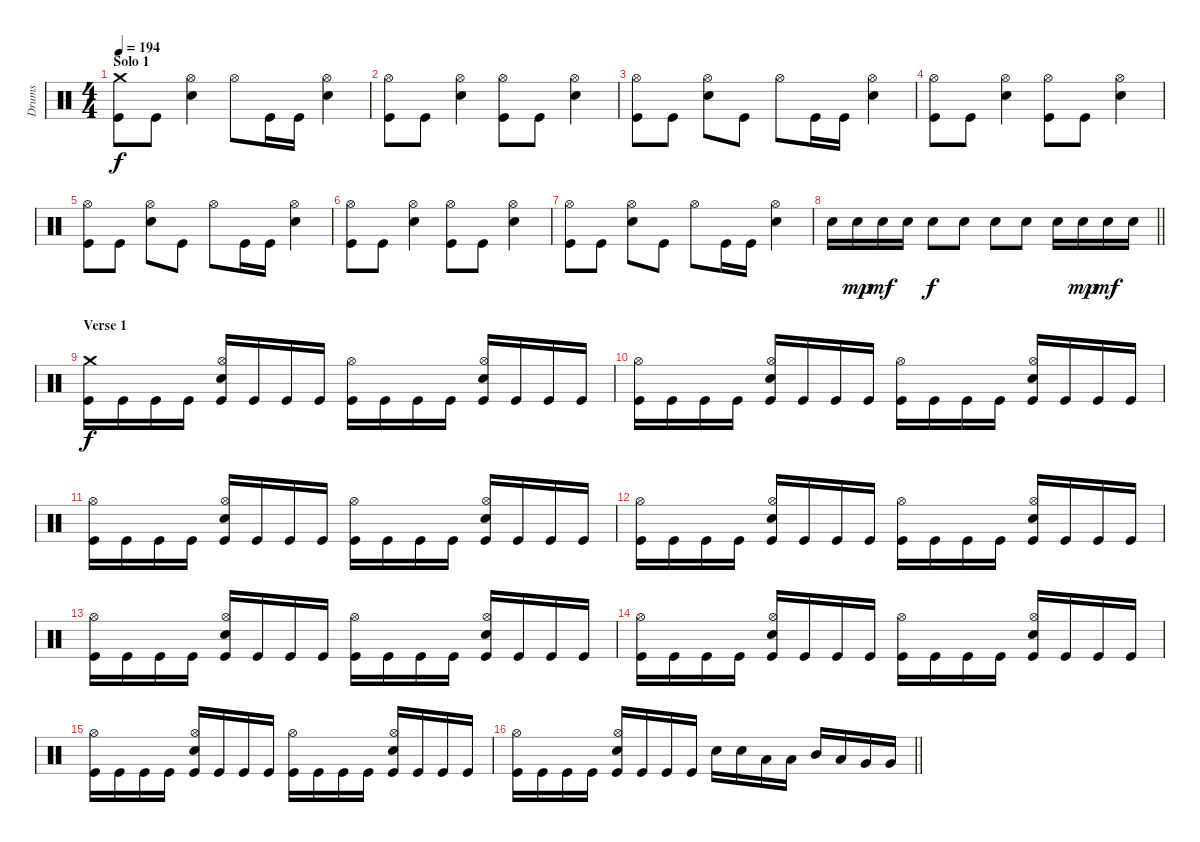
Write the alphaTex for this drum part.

\track ("Drums" "Drums") {instrument percussion}
\staff {score}
\articulation defaults
\ts (4 4)
\section ("" "Solo 1")
\tempo 194
\clef neutral
\ks c
("Crash medium (hit)" "Kick (hit)").8{dy f} "Kick (hit)".8 ("Hi-Hat (open)" "Snare (hit) 2").4 "Hi-Hat (open)".8 "Kick (hit)".16 "Kick (hit)".16 ("Hi-Hat (open)" "Snare (hit) 2").4 |
("Hi-Hat (open)" "Kick (hit)").8 "Kick (hit)".8 ("Hi-Hat (open)" "Snare (hit) 2").4 ("Hi-Hat (open)" "Kick (hit)").8 "Kick (hit)".8 ("Hi-Hat (open)" "Snare (hit) 2").4 |
("Hi-Hat (open)" "Kick (hit)").8 "Kick (hit)".8 ("Hi-Hat (open)" "Snare (hit) 2").8 "Kick (hit)".8 "Hi-Hat (open)".8 "Kick (hit)".16 "Kick (hit)".16 ("Hi-Hat (open)" "Snare (hit) 2").4 |
("Hi-Hat (open)" "Kick (hit)").8 "Kick (hit)".8 ("Hi-Hat (open)" "Snare (hit) 2").4 ("Hi-Hat (open)" "Kick (hit)").8 "Kick (hit)".8 ("Hi-Hat (open)" "Snare (hit) 2").4 |
("Hi-Hat (open)" "Kick (hit)").8 "Kick (hit)".8 ("Hi-Hat (open)" "Snare (hit) 2").8 "Kick (hit)".8 "Hi-Hat (open)".8 "Kick (hit)".16 "Kick (hit)".16 ("Hi-Hat (open)" "Snare (hit) 2").4 |
("Hi-Hat (open)" "Kick (hit)").8 "Kick (hit)".8 ("Hi-Hat (open)" "Snare (hit) 2").4 ("Hi-Hat (open)" "Kick (hit)").8 "Kick (hit)".8 ("Hi-Hat (open)" "Snare (hit) 2").4 |
("Hi-Hat (open)" "Kick (hit)").8 "Kick (hit)".8 ("Hi-Hat (open)" "Snare (hit) 2").8 "Kick (hit)".8 "Hi-Hat (open)".8 "Kick (hit)".16 "Kick (hit)".16 ("Hi-Hat (open)" "Snare (hit) 2").4 |
\barLineRight lightlight "Snare (hit) 2".16 "Snare (hit) 2".16{dy mp} "Snare (hit) 2".16{dy mf} "Snare (hit) 2".16 "Snare (hit) 2".8{dy f} "Snare (hit) 2".8 "Snare (hit) 2".8 "Snare (hit) 2".8 "Snare (hit) 2".16 "Snare (hit) 2".16{dy mp} "Snare (hit) 2".16{dy mf} "Snare (hit) 2".16
|
\section ("" "Verse 1")
("Crash medium (hit)" "Kick (hit)").16{dy f} "Kick (hit)".16 "Kick (hit)".16 "Kick (hit)".16 ("Hi-Hat (open)" "Snare (hit) 2" "Kick (hit)").16 "Kick (hit)".16 "Kick (hit)".16 "Kick (hit)".16 ("Hi-Hat (open)" "Kick (hit)").16 "Kick (hit)".16 "Kick (hit)".16 "Kick (hit)".16 ("Hi-Hat (open)" "Snare (hit) 2" "Kick (hit)").16 "Kick (hit)".16 "Kick (hit)".16 "Kick (hit)".16 |
("Hi-Hat (open)" "Kick (hit)").16 "Kick (hit)".16 "Kick (hit)".16 "Kick (hit)".16 ("Hi-Hat (open)" "Snare (hit) 2" "Kick (hit)").16 "Kick (hit)".16 "Kick (hit)".16 "Kick (hit)".16 ("Hi-Hat (open)" "Kick (hit)").16 "Kick (hit)".16 "Kick (hit)".16 "Kick (hit)".16 ("Hi-Hat (open)" "Snare (hit) 2" "Kick (hit)").16 "Kick (hit)".16 "Kick (hit)".16 "Kick (hit)".16 |
("Hi-Hat (open)" "Kick (hit)").16 "Kick (hit)".16 "Kick (hit)".16 "Kick (hit)".16 ("Hi-Hat (open)" "Snare (hit) 2" "Kick (hit)").16 "Kick (hit)".16 "Kick (hit)".16 "Kick (hit)".16 ("Hi-Hat (open)" "Kick (hit)").16 "Kick (hit)".16 "Kick (hit)".16 "Kick (hit)".16 ("Hi-Hat (open)" "Snare (hit) 2" "Kick (hit)").16 "Kick (hit)".16 "Kick (hit)".16 "Kick (hit)".16 |
("Hi-Hat (open)" "Kick (hit)").16 "Kick (hit)".16 "Kick (hit)".16 "Kick (hit)".16 ("Hi-Hat (open)" "Snare (hit) 2" "Kick (hit)").16 "Kick (hit)".16 "Kick (hit)".16 "Kick (hit)".16 ("Hi-Hat (open)" "Kick (hit)").16 "Kick (hit)".16 "Kick (hit)".16 "Kick (hit)".16 ("Hi-Hat (open)" "Snare (hit) 2" "Kick (hit)").16 "Kick (hit)".16 "Kick (hit)".16 "Kick (hit)".16 |
("Hi-Hat (open)" "Kick (hit)").16 "Kick (hit)".16 "Kick (hit)".16 "Kick (hit)".16 ("Hi-Hat (open)" "Snare (hit) 2" "Kick (hit)").16 "Kick (hit)".16 "Kick (hit)".16 "Kick (hit)".16 ("Hi-Hat (open)" "Kick (hit)").16 "Kick (hit)".16 "Kick (hit)".16 "Kick (hit)".16 ("Hi-Hat (open)" "Snare (hit) 2" "Kick (hit)").16 "Kick (hit)".16 "Kick (hit)".16 "Kick (hit)".16 |
("Hi-Hat (open)" "Kick (hit)").16 "Kick (hit)".16 "Kick (hit)".16 "Kick (hit)".16 ("Hi-Hat (open)" "Snare (hit) 2" "Kick (hit)").16 "Kick (hit)".16 "Kick (hit)".16 "Kick (hit)".16 ("Hi-Hat (open)" "Kick (hit)").16 "Kick (hit)".16 "Kick (hit)".16 "Kick (hit)".16 ("Hi-Hat (open)" "Snare (hit) 2" "Kick (hit)").16 "Kick (hit)".16 "Kick (hit)".16 "Kick (hit)".16 |
("Hi-Hat (open)" "Kick (hit)").16 "Kick (hit)".16 "Kick (hit)".16 "Kick (hit)".16 ("Hi-Hat (open)" "Snare (hit) 2" "Kick (hit)").16 "Kick (hit)".16 "Kick (hit)".16 "Kick (hit)".16 ("Hi-Hat (open)" "Kick (hit)").16 "Kick (hit)".16 "Kick (hit)".16 "Kick (hit)".16 ("Hi-Hat (open)" "Snare (hit) 2" "Kick (hit)").16 "Kick (hit)".16 "Kick (hit)".16 "Kick (hit)".16 |
\barLineRight lightlight
("Hi-Hat (open)" "Kick (hit)").16 "Kick (hit)".16 "Kick (hit)".16 "Kick (hit)".16 ("Hi-Hat (open)" "Snare (hit) 2" "Kick (hit)").16 "Kick (hit)".16 "Kick (hit)".16 "Kick (hit)".16 "Snare (hit) 2".16 "Snare (hit) 2".16 "Low Tom (hit)".16 "Low Tom (hit)".16 "Mid Tom (hit)".16 "Low Tom (hit)".16 "Very Low Tom (hit)".16 "Very Low Tom (hit)".16
